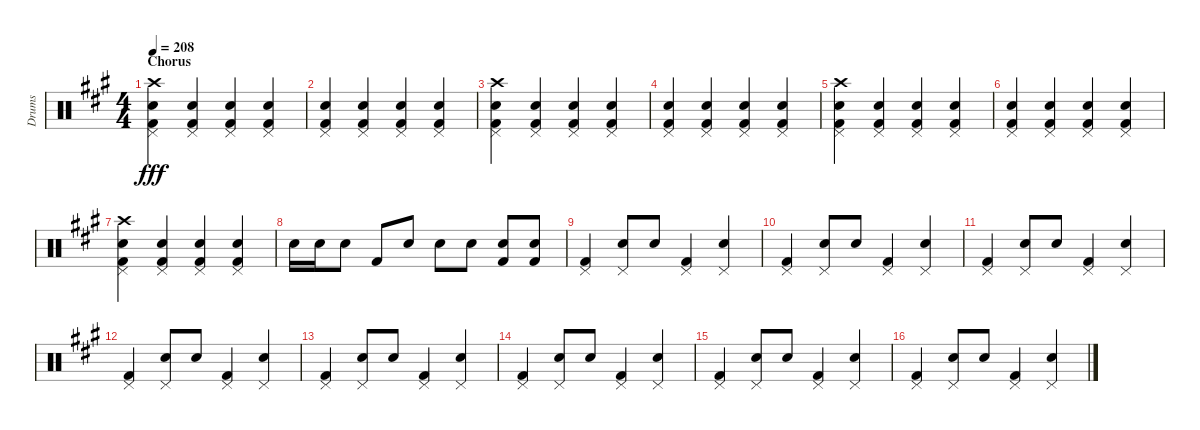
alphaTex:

\track ("Drums" "Drums") {instrument percussion}
\staff {score}
\articulation defaults
\ts (4 4)
\section ("" "Chorus")
\tempo 208
\clef neutral
\ks a
("Crash high (hit)" "Pedal Hi-Hat (hit)" "Snare (hit) 2" "Kick (hit) 2").4{dy fff} ("Pedal Hi-Hat (hit)" "Snare (hit) 2" "Kick (hit) 2").4 ("Pedal Hi-Hat (hit)" "Snare (hit) 2" "Kick (hit) 2").4 ("Pedal Hi-Hat (hit)" "Snare (hit) 2" "Kick (hit) 2").4 |
("Pedal Hi-Hat (hit)" "Snare (hit) 2" "Kick (hit) 2").4 ("Pedal Hi-Hat (hit)" "Snare (hit) 2" "Kick (hit) 2").4 ("Pedal Hi-Hat (hit)" "Snare (hit) 2" "Kick (hit) 2").4 ("Pedal Hi-Hat (hit)" "Snare (hit) 2" "Kick (hit) 2").4 |
("Crash high (hit)" "Pedal Hi-Hat (hit)" "Snare (hit) 2" "Kick (hit) 2").4 ("Pedal Hi-Hat (hit)" "Snare (hit) 2" "Kick (hit) 2").4 ("Pedal Hi-Hat (hit)" "Snare (hit) 2" "Kick (hit) 2").4 ("Pedal Hi-Hat (hit)" "Snare (hit) 2" "Kick (hit) 2").4 |
("Pedal Hi-Hat (hit)" "Snare (hit) 2" "Kick (hit) 2").4 ("Pedal Hi-Hat (hit)" "Snare (hit) 2" "Kick (hit) 2").4 ("Pedal Hi-Hat (hit)" "Snare (hit) 2" "Kick (hit) 2").4 ("Pedal Hi-Hat (hit)" "Snare (hit) 2" "Kick (hit) 2").4 |
("Crash high (hit)" "Pedal Hi-Hat (hit)" "Snare (hit) 2" "Kick (hit) 2").4 ("Pedal Hi-Hat (hit)" "Snare (hit) 2" "Kick (hit) 2").4 ("Pedal Hi-Hat (hit)" "Snare (hit) 2" "Kick (hit) 2").4 ("Pedal Hi-Hat (hit)" "Snare (hit) 2" "Kick (hit) 2").4 |
("Pedal Hi-Hat (hit)" "Snare (hit) 2" "Kick (hit) 2").4 ("Pedal Hi-Hat (hit)" "Snare (hit) 2" "Kick (hit) 2").4 ("Pedal Hi-Hat (hit)" "Snare (hit) 2" "Kick (hit) 2").4 ("Pedal Hi-Hat (hit)" "Snare (hit) 2" "Kick (hit) 2").4 |
("Crash high (hit)" "Pedal Hi-Hat (hit)" "Snare (hit) 2" "Kick (hit) 2").4 ("Pedal Hi-Hat (hit)" "Snare (hit) 2" "Kick (hit) 2").4 ("Pedal Hi-Hat (hit)" "Snare (hit) 2" "Kick (hit) 2").4 ("Pedal Hi-Hat (hit)" "Snare (hit) 2" "Kick (hit) 2").4 |
"Snare (hit) 2".16 "Snare (hit) 2".16 "Snare (hit) 2".8 "Kick (hit) 2".8 "Snare (hit) 2".8 "Snare (hit) 2".8 "Snare (hit) 2".8 ("Snare (hit) 2" "Kick (hit) 2").8 ("Snare (hit) 2" "Kick (hit) 2").8 |
("Pedal Hi-Hat (hit)" "Kick (hit) 2").4 ("Pedal Hi-Hat (hit)" "Snare (hit) 2").8 "Snare (hit) 2".8 ("Pedal Hi-Hat (hit)" "Kick (hit) 2").4 ("Pedal Hi-Hat (hit)" "Snare (hit) 2").4 |
("Pedal Hi-Hat (hit)" "Kick (hit) 2").4 ("Pedal Hi-Hat (hit)" "Snare (hit) 2").8 "Snare (hit) 2".8 ("Pedal Hi-Hat (hit)" "Kick (hit) 2").4 ("Pedal Hi-Hat (hit)" "Snare (hit) 2").4 |
("Pedal Hi-Hat (hit)" "Kick (hit) 2").4 ("Pedal Hi-Hat (hit)" "Snare (hit) 2").8 "Snare (hit) 2".8 ("Pedal Hi-Hat (hit)" "Kick (hit) 2").4 ("Pedal Hi-Hat (hit)" "Snare (hit) 2").4 |
("Pedal Hi-Hat (hit)" "Kick (hit) 2").4 ("Pedal Hi-Hat (hit)" "Snare (hit) 2").8 "Snare (hit) 2".8 ("Pedal Hi-Hat (hit)" "Kick (hit) 2").4 ("Pedal Hi-Hat (hit)" "Snare (hit) 2").4 |
("Pedal Hi-Hat (hit)" "Kick (hit) 2").4 ("Pedal Hi-Hat (hit)" "Snare (hit) 2").8 "Snare (hit) 2".8 ("Pedal Hi-Hat (hit)" "Kick (hit) 2").4 ("Pedal Hi-Hat (hit)" "Snare (hit) 2").4 |
("Pedal Hi-Hat (hit)" "Kick (hit) 2").4 ("Pedal Hi-Hat (hit)" "Snare (hit) 2").8 "Snare (hit) 2".8 ("Pedal Hi-Hat (hit)" "Kick (hit) 2").4 ("Pedal Hi-Hat (hit)" "Snare (hit) 2").4 |
("Pedal Hi-Hat (hit)" "Kick (hit) 2").4 ("Pedal Hi-Hat (hit)" "Snare (hit) 2").8 "Snare (hit) 2".8 ("Pedal Hi-Hat (hit)" "Kick (hit) 2").4 ("Pedal Hi-Hat (hit)" "Snare (hit) 2").4 |
("Pedal Hi-Hat (hit)" "Kick (hit) 2").4 ("Pedal Hi-Hat (hit)" "Snare (hit) 2").8 "Snare (hit) 2".8 ("Pedal Hi-Hat (hit)" "Kick (hit) 2").4 ("Pedal Hi-Hat (hit)" "Snare (hit) 2").4
